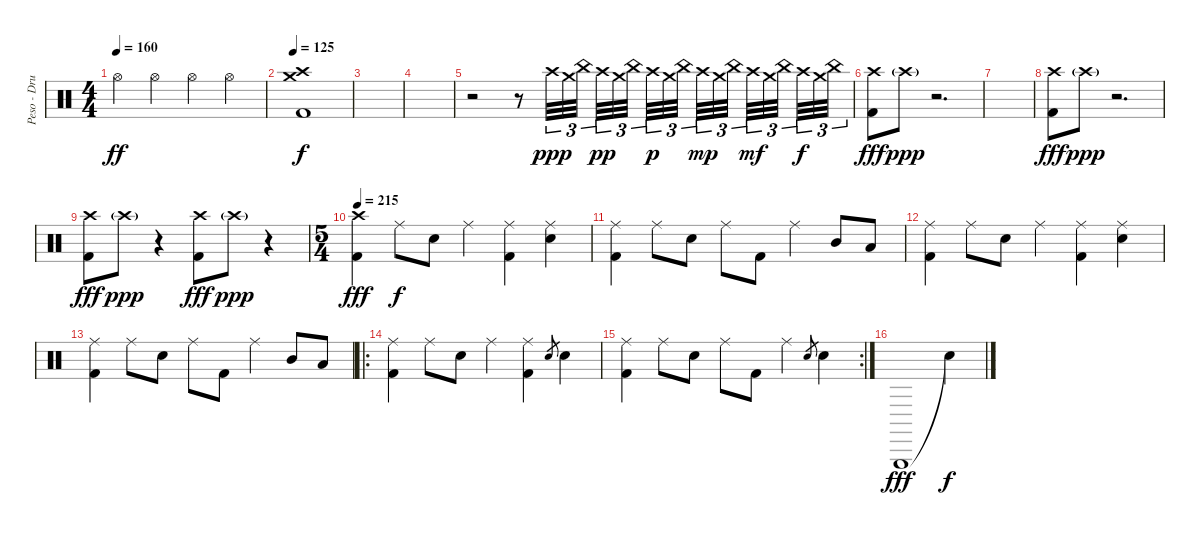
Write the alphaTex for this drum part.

\track ("Peso - Drums" "Peso - Dru") {instrument percussion}
\staff {score}
\articulation defaults
\ts (4 4)
\tempo 160
\clef neutral
\ks c "Hi-Hat (open)".4{dy ff} "Hi-Hat (open)".4 "Hi-Hat (open)".4 "Hi-Hat (open)".4
|
\tempo 125
("Crash high (hit)" "Crash medium (hit)" "Kick (hit) 2").1{dy f} |
|
|
r.2 r.8 "Crash high (hit)".32{tu (3 2) dy ppp} "Crash medium (hit)".32{tu (3 2)} "China (hit)".32{tu (3 2) beam splitsecondary} "Crash high (hit)".32{tu (3 2) dy pp} "Crash medium (hit)".32{tu (3 2)} "China (hit)".32{tu (3 2)} "Crash high (hit)".32{tu (3 2) dy p} "Crash medium (hit)".32{tu (3 2)} "China (hit)".32{tu (3 2) beam splitsecondary} "Crash high (hit)".32{tu (3 2) dy mp} "Crash medium (hit)".32{tu (3 2)} "China (hit)".32{tu (3 2) beam splitsecondary} "Crash high (hit)".32{tu (3 2) dy mf} "Crash medium (hit)".32{tu (3 2)} "China (hit)".32{tu (3 2) beam splitsecondary} "Crash high (hit)".32{tu (3 2) dy f} "Crash medium (hit)".32{tu (3 2)} "China (hit)".32{tu (3 2)} |
("Crash high (hit)" "Kick (hit) 2").8{dy fff} "Crash high (hit)"{g}.8{dy ppp} r.2{d} |
|
("Crash high (hit)" "Kick (hit) 2").8{dy fff} "Crash high (hit)"{g}.8{dy ppp} r.2{d} |
("Crash high (hit)" "Kick (hit) 2").8{dy fff} "Crash high (hit)"{g}.8{dy ppp} r.4 ("Crash high (hit)" "Kick (hit) 2").8{dy fff} "Crash high (hit)"{g}.8{dy ppp} r.4 |
\ts (5 4)
\tempo 215
("Crash high (hit)" "Kick (hit) 2").4{dy fff volume 13} "Ride (middle)".8{dy f} "Electric Snare (hit)".8 "Ride (middle)".4 ("Ride (middle)" "Kick (hit) 2").4 ("Ride (middle)" "Electric Snare (hit)").4 |
("Ride (middle)" "Kick (hit) 2").4 "Ride (middle)".8 "Electric Snare (hit)".8 "Ride (middle)".8 "Kick (hit) 2".8 "Ride (middle)".4 "Mid Tom (hit)".8 "Low Tom (hit)".8 |
("Ride (middle)" "Kick (hit) 2").4 "Ride (middle)".8 "Electric Snare (hit)".8 "Ride (middle)".4 ("Ride (middle)" "Kick (hit) 2").4 ("Ride (middle)" "Electric Snare (hit)").4 |
("Ride (middle)" "Kick (hit) 2").4 "Ride (middle)".8 "Electric Snare (hit)".8 "Ride (middle)".8 "Kick (hit) 2".8 "Ride (middle)".4 "Mid Tom (hit)".8 "Low Tom (hit)".8 |
\ro
("Ride (middle)" "Kick (hit) 2").4 "Ride (middle)".8 "Electric Snare (hit)".8 "Ride (middle)".4 ("Ride (middle)" "Kick (hit) 2").4 "Electric Snare (hit)".8{gr} "Electric Snare (hit)".4 |
\rc 2
("Ride (middle)" "Kick (hit) 2").4 "Ride (middle)".8 "Electric Snare (hit)".8 "Ride (middle)".8 "Kick (hit) 2".8 "Ride (middle)".4 "Electric Snare (hit)".8{gr} "Electric Snare (hit)".4 |
"Triangle (hit)".1{dy fff} "Snare (hit)"{t}.4{dy f}
